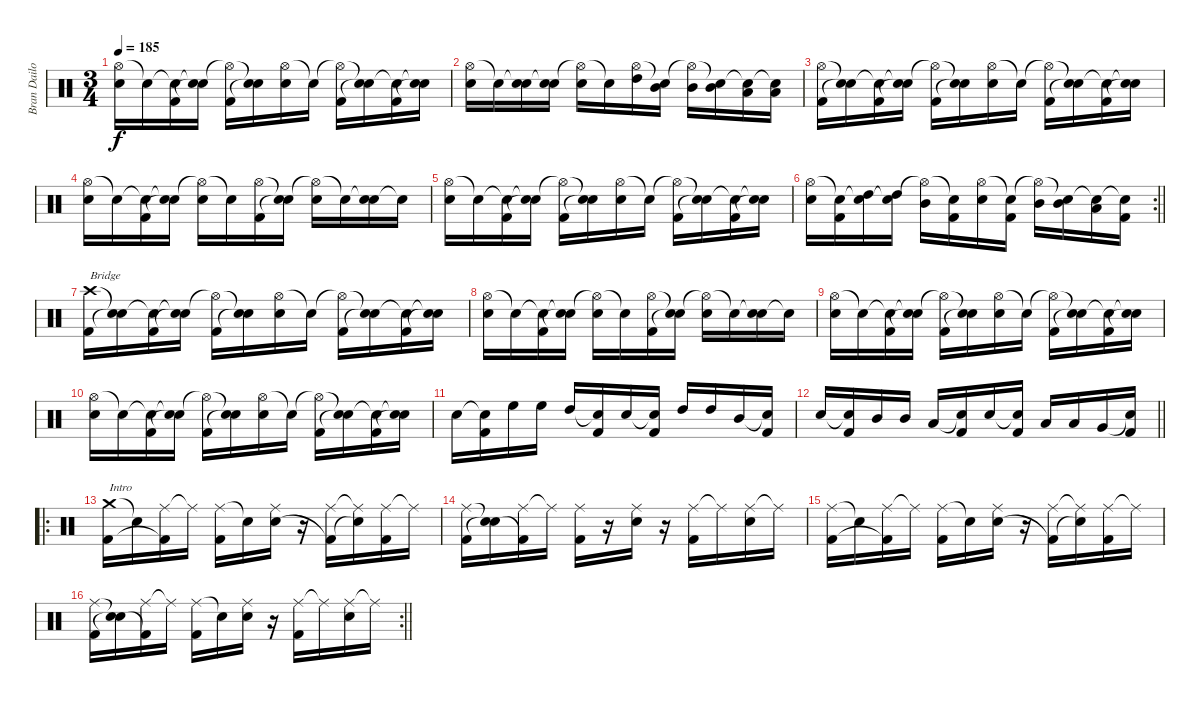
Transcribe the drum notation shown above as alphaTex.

\track ("Bran Dailor" "Bran Dailo") {instrument percussion}
\staff {score}
\articulation defaults
\ts (3 4)
\tempo 185
\clef neutral
\ks c
("Hi-Hat (open)" "Electric Snare (hit)").16{dy f} "Snare (hit)"{t}.16 ("Snare (hit)"{t} "Kick (hit) 2").16 ("Snare (hit)"{t} "Snare (hit)"{t}).16 ("Hi-Hat (open)"{t} "Kick (hit) 2").16 ("Snare (hit)"{t} "Snare (hit)"{t}).16 ("Hi-Hat (open)" "Electric Snare (hit)").16 "Snare (hit)"{t}.16 ("Hi-Hat (open)"{t} "Kick (hit) 2").16 ("Snare (hit)"{t} "Snare (hit)"{t}).16 ("Snare (hit)"{t} "Kick (hit) 2").16 ("Snare (hit)"{t} "Snare (hit)"{t}).16 |
("Hi-Hat (open)" "Electric Snare (hit)").16 "Snare (hit)"{t}.16 ("Snare (hit)"{t} "Electric Snare (hit)").16 ("Snare (hit)"{t} "Electric Snare (hit)").16 ("Hi-Hat (open)"{t} "Electric Snare (hit)").16 "Snare (hit)"{t}.16 ("Hi-Hat (open)" "High Tom (hit)").16 ("Snare (hit)"{t} "Mid Tom (hit)").16 ("Hi-Hat (open)"{t} "Mid Tom (hit)").16 ("Snare (hit)"{t} "Mid Tom (hit)").16 ("Snare (hit)"{t} "Low Tom (hit)").16 ("Snare (hit)"{t} "Low Tom (hit)").16 |
("Hi-Hat (open)" "Kick (hit) 2").16 ("Snare (hit)"{t} "Snare (hit)"{t}).16 ("Snare (hit)"{t} "Kick (hit) 2").16 ("Snare (hit)"{t} "Snare (hit)"{t}).16 ("Hi-Hat (open)"{t} "Kick (hit) 2").16 ("Snare (hit)"{t} "Snare (hit)"{t}).16 ("Hi-Hat (open)" "Electric Snare (hit)").16 "Snare (hit)"{t}.16 ("Hi-Hat (open)"{t} "Kick (hit) 2").16 ("Snare (hit)"{t} "Snare (hit)"{t}).16 ("Snare (hit)"{t} "Kick (hit) 2").16 ("Snare (hit)"{t} "Snare (hit)"{t}).16 |
("Hi-Hat (open)" "Electric Snare (hit)").16 "Snare (hit)"{t}.16 ("Snare (hit)"{t} "Kick (hit) 2").16 ("Snare (hit)"{t} "Snare (hit)"{t}).16 ("Hi-Hat (open)"{t} "Electric Snare (hit)").16 "Snare (hit)"{t}.16 ("Hi-Hat (open)" "Kick (hit) 2").16 ("Snare (hit)"{t} "Snare (hit)"{t}).16 ("Hi-Hat (open)"{t} "Electric Snare (hit)").16 "Snare (hit)"{t}.16 ("Snare (hit)"{t} "Electric Snare (hit)").16 "Snare (hit)"{t}.16 |
("Hi-Hat (open)" "Electric Snare (hit)").16 "Snare (hit)"{t}.16 ("Snare (hit)"{t} "Kick (hit) 2").16 ("Snare (hit)"{t} "Snare (hit)"{t}).16 ("Hi-Hat (open)"{t} "Kick (hit) 2").16 ("Snare (hit)"{t} "Snare (hit)"{t}).16 ("Hi-Hat (open)" "Electric Snare (hit)").16 "Snare (hit)"{t}.16 ("Hi-Hat (open)"{t} "Kick (hit) 2").16 ("Snare (hit)"{t} "Snare (hit)"{t}).16 ("Snare (hit)"{t} "Kick (hit) 2").16 ("Snare (hit)"{t} "Snare (hit)"{t}).16 |
\rc 2
\barLineRight lightlight
("Hi-Hat (open)" "Electric Snare (hit)").16 ("Snare (hit)"{t} "Kick (hit) 2").16 ("Snare (hit)"{t} "High Tom (hit)").16 ("Snare (hit)"{t} "High Tom (hit)").16 ("Hi-Hat (open)"{t} "Mid Tom (hit)").16 ("Snare (hit)"{t} "Kick (hit) 2").16 ("Hi-Hat (open)" "Electric Snare (hit)").16 ("Snare (hit)"{t} "Kick (hit) 2").16 ("Hi-Hat (open)"{t} "Mid Tom (hit)").16 ("Snare (hit)"{t} "Mid Tom (hit)").16 ("Snare (hit)"{t} "Low Tom (hit)").16 ("Snare (hit)"{t} "Kick (hit) 2").16 |
("Crash high (hit)" "Kick (hit) 2").16{txt "Bridge"} ("Snare (hit)"{t} "Snare (hit)"{t}).16 ("Snare (hit)"{t} "Kick (hit) 2").16 ("Snare (hit)"{t} "Snare (hit)"{t}).16 ("Hi-Hat (open)"{t} "Kick (hit) 2").16 ("Snare (hit)"{t} "Snare (hit)"{t}).16 ("Hi-Hat (open)" "Electric Snare (hit)").16 "Snare (hit)"{t}.16 ("Hi-Hat (open)"{t} "Kick (hit) 2").16 ("Snare (hit)"{t} "Snare (hit)"{t}).16 ("Snare (hit)"{t} "Kick (hit) 2").16 ("Snare (hit)"{t} "Snare (hit)"{t}).16 |
("Hi-Hat (open)" "Electric Snare (hit)").16 "Snare (hit)"{t}.16 ("Snare (hit)"{t} "Kick (hit) 2").16 ("Snare (hit)"{t} "Snare (hit)"{t}).16 ("Hi-Hat (open)"{t} "Electric Snare (hit)").16 "Snare (hit)"{t}.16 ("Hi-Hat (open)" "Kick (hit) 2").16 ("Snare (hit)"{t} "Snare (hit)"{t}).16 ("Hi-Hat (open)"{t} "Electric Snare (hit)").16 "Snare (hit)"{t}.16 ("Snare (hit)"{t} "Electric Snare (hit)").16 "Snare (hit)"{t}.16 |
("Hi-Hat (open)" "Electric Snare (hit)").16 "Snare (hit)"{t}.16 ("Snare (hit)"{t} "Kick (hit) 2").16 ("Snare (hit)"{t} "Snare (hit)"{t}).16 ("Hi-Hat (open)"{t} "Kick (hit) 2").16 ("Snare (hit)"{t} "Snare (hit)"{t}).16 ("Hi-Hat (open)" "Electric Snare (hit)").16 "Snare (hit)"{t}.16 ("Hi-Hat (open)"{t} "Kick (hit) 2").16 ("Snare (hit)"{t} "Snare (hit)"{t}).16 ("Snare (hit)"{t} "Kick (hit) 2").16 ("Snare (hit)"{t} "Snare (hit)"{t}).16 |
("Hi-Hat (open)" "Electric Snare (hit)").16 "Snare (hit)"{t}.16 ("Snare (hit)"{t} "Kick (hit) 2").16 ("Snare (hit)"{t} "Snare (hit)"{t}).16 ("Hi-Hat (open)"{t} "Kick (hit) 2").16 ("Snare (hit)"{t} "Snare (hit)"{t}).16 ("Hi-Hat (open)" "Electric Snare (hit)").16 "Snare (hit)"{t}.16 ("Hi-Hat (open)"{t} "Kick (hit) 2").16 ("Snare (hit)"{t} "Snare (hit)"{t}).16 ("Snare (hit)"{t} "Kick (hit) 2").16 ("Snare (hit)"{t} "Snare (hit)"{t}).16 |
"Electric Snare (hit)".16 ("Snare (hit)"{t} "Kick (hit) 2").16 "High Floor Tom (hit)".16 "High Floor Tom (hit)".16 "High Tom (hit)".16 ("Snare (hit)"{t} "Kick (hit) 2").16 "Electric Snare (hit)".16 ("Snare (hit)"{t} "Kick (hit) 2").16 "High Tom (hit)".16 "High Tom (hit)".16 "Mid Tom (hit)".16 ("Snare (hit)"{t} "Kick (hit) 2").16 |
\barLineRight lightlight "Electric Snare (hit)".16
("Snare (hit)"{t} "Kick (hit) 2").16 "Mid Tom (hit)".16 "Mid Tom (hit)".16 "Low Tom (hit)".16 ("Snare (hit)"{t} "Kick (hit) 2").16 "Electric Snare (hit)".16 ("Snare (hit)"{t} "Kick (hit) 2").16 "Low Tom (hit)".16 "Low Tom (hit)".16 "Very Low Tom (hit)".16 ("Snare (hit)"{t} "Kick (hit) 2").16 |
\ro
("Crash medium (hit)" "Kick (hit) 2").16{txt "Intro"} "Snare (hit)"{t}.16 ("Ride (middle)" "Kick (hit) 2"{t}).16 "Ride (middle)"{t}.16 ("Ride (middle)" "Kick (hit) 2").16 "Snare (hit)"{t}.16 ("Ride (middle)" "Electric Snare (hit)").16 r.16 ("Ride (middle)" "Kick (hit) 2"{t}).16 ("Ride (middle)"{t} "Snare (hit)"{t}).16 ("Ride (middle)" "Kick (hit) 2").16 "Ride (middle)"{t}.16 |
("Ride (middle)" "Kick (hit) 2").16 ("Snare (hit)"{t} "Snare (hit)"{t}).16 ("Ride (middle)" "Kick (hit) 2"{t}).16 "Ride (middle)"{t}.16 ("Ride (middle)" "Kick (hit) 2").16 r.16 ("Ride (middle)" "Electric Snare (hit)").16 r.16 ("Ride (middle)" "Kick (hit) 2").16 "Ride (middle)"{t}.16 ("Ride (middle)" "Electric Snare (hit)").16 "Ride (middle)"{t}.16 |
("Ride (middle)" "Kick (hit) 2").16 "Snare (hit)"{t}.16 ("Ride (middle)" "Kick (hit) 2"{t}).16 "Ride (middle)"{t}.16 ("Ride (middle)" "Kick (hit) 2").16 "Snare (hit)"{t}.16 ("Ride (middle)" "Electric Snare (hit)").16 r.16 ("Ride (middle)" "Kick (hit) 2"{t}).16 ("Ride (middle)"{t} "Snare (hit)"{t}).16 ("Ride (middle)" "Kick (hit) 2").16 "Ride (middle)"{t}.16 |
\rc 2
\barLineRight lightlight
("Ride (middle)" "Kick (hit) 2").16 ("Snare (hit)"{t} "Snare (hit)"{t}).16 ("Ride (middle)" "Kick (hit) 2"{t}).16 "Ride (middle)"{t}.16 ("Ride (middle)" "Kick (hit) 2").16 "Snare (hit)"{t}.16 ("Ride (middle)" "Electric Snare (hit)").16 r.16 ("Ride (middle)" "Kick (hit) 2").16 "Ride (middle)"{t}.16 ("Ride (middle)" "Electric Snare (hit)").16 "Ride (middle)"{t}.16
